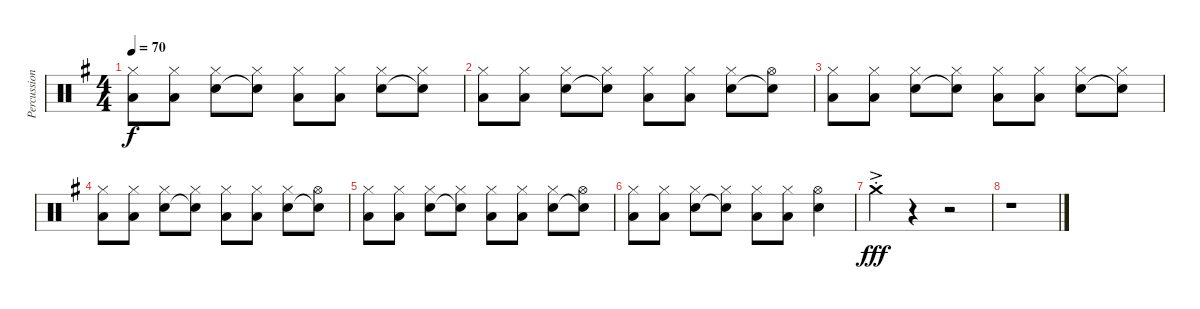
\track ("Percussions" "Percussion") {instrument percussion}
\staff {score}
\articulation defaults
\ts (4 4)
\tempo 70
\clef neutral
\ks g
("Hi-Hat (closed)" "Low Floor Tom (hit)").8{dy f} ("Hi-Hat (closed)" "Low Floor Tom (hit)").8 ("Hi-Hat (closed)" "Electric Snare (hit)").8 ("Hi-Hat (closed)" "Snare (hit)"{t}).8 ("Hi-Hat (closed)" "Low Floor Tom (hit)").8 ("Hi-Hat (closed)" "Low Floor Tom (hit)").8 ("Hi-Hat (closed)" "Electric Snare (hit)").8 ("Hi-Hat (closed)" "Snare (hit)"{t}).8 |
("Hi-Hat (closed)" "Low Floor Tom (hit)").8 ("Hi-Hat (closed)" "Low Floor Tom (hit)").8 ("Hi-Hat (closed)" "Electric Snare (hit)").8 ("Hi-Hat (closed)" "Snare (hit)"{t}).8 ("Hi-Hat (closed)" "Low Floor Tom (hit)").8 ("Hi-Hat (closed)" "Low Floor Tom (hit)").8 ("Hi-Hat (closed)" "Electric Snare (hit)").8 ("Hi-Hat (open)" "Snare (hit)"{t}).8 |
("Hi-Hat (closed)" "Low Floor Tom (hit)").8 ("Hi-Hat (closed)" "Low Floor Tom (hit)").8 ("Hi-Hat (closed)" "Electric Snare (hit)").8 ("Hi-Hat (closed)" "Snare (hit)"{t}).8 ("Hi-Hat (closed)" "Low Floor Tom (hit)").8 ("Hi-Hat (closed)" "Low Floor Tom (hit)").8 ("Hi-Hat (closed)" "Electric Snare (hit)").8 ("Hi-Hat (closed)" "Snare (hit)"{t}).8 |
("Hi-Hat (closed)" "Low Floor Tom (hit)").8 ("Hi-Hat (closed)" "Low Floor Tom (hit)").8 ("Hi-Hat (closed)" "Electric Snare (hit)").8 ("Hi-Hat (closed)" "Snare (hit)"{t}).8 ("Hi-Hat (closed)" "Low Floor Tom (hit)").8 ("Hi-Hat (closed)" "Low Floor Tom (hit)").8 ("Hi-Hat (closed)" "Electric Snare (hit)").8 ("Hi-Hat (open)" "Snare (hit)"{t}).8 |
("Hi-Hat (closed)" "Low Floor Tom (hit)").8 ("Hi-Hat (closed)" "Low Floor Tom (hit)").8 ("Hi-Hat (closed)" "Electric Snare (hit)").8 ("Hi-Hat (closed)" "Snare (hit)"{t}).8 ("Hi-Hat (closed)" "Low Floor Tom (hit)").8 ("Hi-Hat (closed)" "Low Floor Tom (hit)").8 ("Hi-Hat (closed)" "Electric Snare (hit)").8 ("Hi-Hat (open)" "Snare (hit)"{t}).8 |
("Hi-Hat (closed)" "Low Floor Tom (hit)").8 ("Hi-Hat (closed)" "Low Floor Tom (hit)").8 ("Hi-Hat (closed)" "Electric Snare (hit)").8 ("Hi-Hat (closed)" "Snare (hit)"{t}).8 ("Hi-Hat (closed)" "Low Floor Tom (hit)").8 ("Hi-Hat (closed)" "Low Floor Tom (hit)").8 ("Hi-Hat (open)" "Electric Snare (hit)").4 |
"Crash medium (hit)"{ac st}.4{dy fff} r.4 r.2 |
r.1
